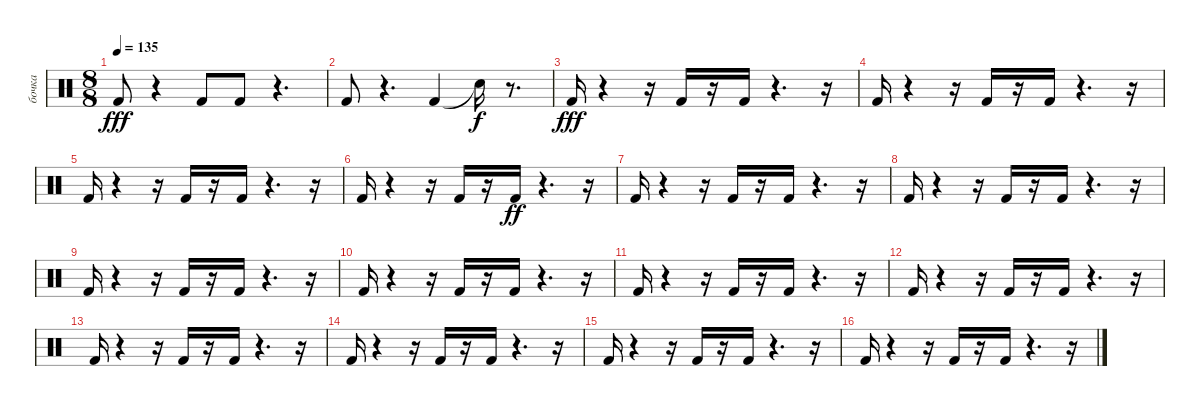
\track ("бочка" "бочка") {instrument percussion}
\staff {score}
\articulation defaults
\ts (8 8)
\tempo 135
\clef neutral
\ks c "Kick (hit) 2".8{dy fff}
r.4 "Kick (hit) 2".8 "Kick (hit) 2".8 r.4{d} |
"Kick (hit) 2".8 r.4{d} "Kick (hit) 2".4 "Snare (hit)"{t}.16{dy f} r.8{d} |
"Kick (hit) 2".16{dy fff} r.4 r.16 "Kick (hit) 2".16 r.16 "Kick (hit) 2".16 r.4{d} r.16 |
"Kick (hit) 2".16 r.4 r.16 "Kick (hit) 2".16 r.16 "Kick (hit) 2".16 r.4{d} r.16 |
"Kick (hit) 2".16 r.4 r.16 "Kick (hit) 2".16 r.16 "Kick (hit) 2".16 r.4{d} r.16 |
"Kick (hit) 2".16 r.4 r.16 "Kick (hit) 2".16 r.16 "Kick (hit) 2".16{dy ff} r.4{d} r.16 |
"Kick (hit) 2".16 r.4 r.16 "Kick (hit) 2".16 r.16 "Kick (hit) 2".16 r.4{d} r.16 |
"Kick (hit) 2".16 r.4 r.16 "Kick (hit) 2".16 r.16 "Kick (hit) 2".16 r.4{d} r.16 |
"Kick (hit) 2".16 r.4 r.16 "Kick (hit) 2".16 r.16 "Kick (hit) 2".16 r.4{d} r.16 |
"Kick (hit) 2".16 r.4 r.16 "Kick (hit) 2".16 r.16 "Kick (hit) 2".16 r.4{d} r.16 |
"Kick (hit) 2".16 r.4 r.16 "Kick (hit) 2".16 r.16 "Kick (hit) 2".16 r.4{d} r.16 |
"Kick (hit) 2".16 r.4 r.16 "Kick (hit) 2".16 r.16 "Kick (hit) 2".16 r.4{d} r.16 |
"Kick (hit) 2".16 r.4 r.16 "Kick (hit) 2".16 r.16 "Kick (hit) 2".16 r.4{d} r.16 |
"Kick (hit) 2".16 r.4 r.16 "Kick (hit) 2".16 r.16 "Kick (hit) 2".16 r.4{d} r.16 |
"Kick (hit) 2".16 r.4 r.16 "Kick (hit) 2".16 r.16 "Kick (hit) 2".16 r.4{d} r.16 |
"Kick (hit) 2".16 r.4 r.16 "Kick (hit) 2".16 r.16 "Kick (hit) 2".16 r.4{d} r.16
